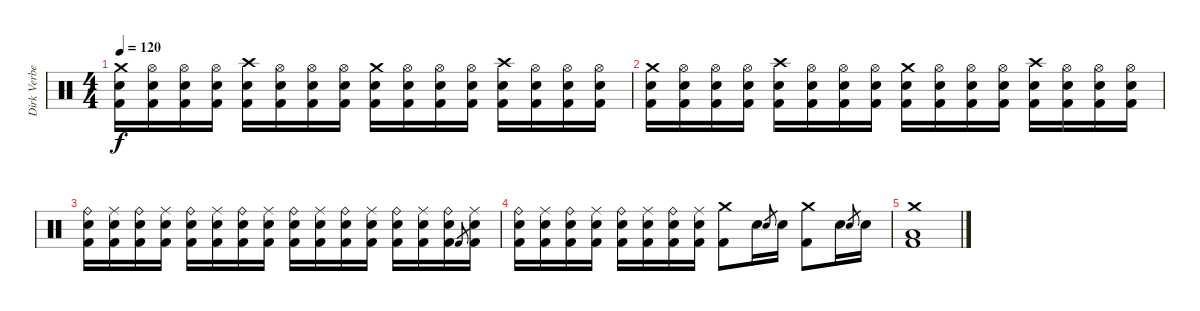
\track ("Dirk Verbeuren" "Dirk Verbe") {instrument percussion}
\staff {score}
\articulation defaults
\ts (4 4)
\tempo 120
\clef neutral
\ks c
("Kick (hit) 2" "Electric Snare (hit)" "Crash medium (hit)").16{dy f} ("Kick (hit) 2" "Electric Snare (hit)" "Hi-Hat (open)").16 ("Kick (hit) 2" "Electric Snare (hit)" "Hi-Hat (open)").16 ("Kick (hit) 2" "Electric Snare (hit)" "Hi-Hat (open)").16 ("Kick (hit) 2" "Electric Snare (hit)" "Crash high (hit)").16 ("Kick (hit) 2" "Electric Snare (hit)" "Hi-Hat (open)").16 ("Kick (hit) 2" "Electric Snare (hit)" "Hi-Hat (open)").16 ("Kick (hit) 2" "Electric Snare (hit)" "Hi-Hat (open)").16 ("Kick (hit) 2" "Electric Snare (hit)" "Crash medium (hit)").16 ("Kick (hit) 2" "Electric Snare (hit)" "Hi-Hat (open)").16 ("Kick (hit) 2" "Electric Snare (hit)" "Hi-Hat (open)").16 ("Kick (hit) 2" "Electric Snare (hit)" "Hi-Hat (open)").16 ("Kick (hit) 2" "Electric Snare (hit)" "Crash high (hit)").16 ("Kick (hit) 2" "Electric Snare (hit)" "Hi-Hat (open)").16 ("Kick (hit) 2" "Electric Snare (hit)" "Hi-Hat (open)").16 ("Kick (hit) 2" "Electric Snare (hit)" "Hi-Hat (open)").16 |
("Kick (hit) 2" "Electric Snare (hit)" "Crash medium (hit)").16 ("Kick (hit) 2" "Electric Snare (hit)" "Hi-Hat (open)").16 ("Kick (hit) 2" "Electric Snare (hit)" "Hi-Hat (open)").16 ("Kick (hit) 2" "Electric Snare (hit)" "Hi-Hat (open)").16 ("Kick (hit) 2" "Electric Snare (hit)" "Crash high (hit)").16 ("Kick (hit) 2" "Electric Snare (hit)" "Hi-Hat (open)").16 ("Kick (hit) 2" "Electric Snare (hit)" "Hi-Hat (open)").16 ("Kick (hit) 2" "Electric Snare (hit)" "Hi-Hat (open)").16 ("Kick (hit) 2" "Electric Snare (hit)" "Crash medium (hit)").16 ("Kick (hit) 2" "Electric Snare (hit)" "Hi-Hat (open)").16 ("Kick (hit) 2" "Electric Snare (hit)" "Hi-Hat (open)").16 ("Kick (hit) 2" "Electric Snare (hit)" "Hi-Hat (open)").16 ("Kick (hit) 2" "Electric Snare (hit)" "Crash high (hit)").16 ("Kick (hit) 2" "Electric Snare (hit)" "Hi-Hat (open)").16 ("Kick (hit) 2" "Electric Snare (hit)" "Hi-Hat (open)").16 ("Kick (hit) 2" "Electric Snare (hit)" "Hi-Hat (open)").16 |
("Kick (hit) 2" "Electric Snare (hit)" "Ride (bell)").16 ("Kick (hit) 2" "Electric Snare (hit)" "Ride (middle)").16 ("Kick (hit) 2" "Electric Snare (hit)" "Ride (bell)").16 ("Kick (hit) 2" "Electric Snare (hit)" "Ride (middle)").16 ("Kick (hit) 2" "Electric Snare (hit)" "Ride (bell)").16 ("Kick (hit) 2" "Electric Snare (hit)" "Ride (middle)").16 ("Kick (hit) 2" "Electric Snare (hit)" "Ride (bell)").16 ("Kick (hit) 2" "Electric Snare (hit)" "Ride (middle)").16 ("Kick (hit) 2" "Electric Snare (hit)" "Ride (bell)").16 ("Kick (hit) 2" "Electric Snare (hit)" "Ride (middle)").16 ("Kick (hit) 2" "Electric Snare (hit)" "Ride (bell)").16 ("Kick (hit) 2" "Electric Snare (hit)" "Ride (middle)").16 ("Kick (hit) 2" "Electric Snare (hit)" "Ride (bell)").16 ("Kick (hit) 2" "Electric Snare (hit)" "Ride (middle)").16 ("Kick (hit) 2" "Electric Snare (hit)" "Ride (bell)").16 "Kick (hit) 2".8{gr} ("Kick (hit) 2" "Electric Snare (hit)" "Ride (middle)").16 |
("Kick (hit) 2" "Electric Snare (hit)" "Ride (bell)").16 ("Kick (hit) 2" "Electric Snare (hit)" "Ride (middle)").16 ("Kick (hit) 2" "Electric Snare (hit)" "Ride (bell)").16 ("Kick (hit) 2" "Electric Snare (hit)" "Ride (middle)").16 ("Kick (hit) 2" "Electric Snare (hit)" "Ride (bell)").16 ("Kick (hit) 2" "Electric Snare (hit)" "Ride (middle)").16 ("Kick (hit) 2" "Electric Snare (hit)" "Ride (bell)").16 ("Kick (hit) 2" "Electric Snare (hit)" "Ride (middle)").16 ("Kick (hit) 2" "Crash medium (hit)").8 "Electric Snare (hit)".16 "Electric Snare (hit)".8{gr} "Electric Snare (hit)".16 ("Kick (hit) 2" "Crash medium (hit)").8 "Electric Snare (hit)".16 "Electric Snare (hit)".8{gr} "Electric Snare (hit)".16 |
("Kick (hit) 2" "Low Floor Tom (hit)" "Crash medium (hit)").1
